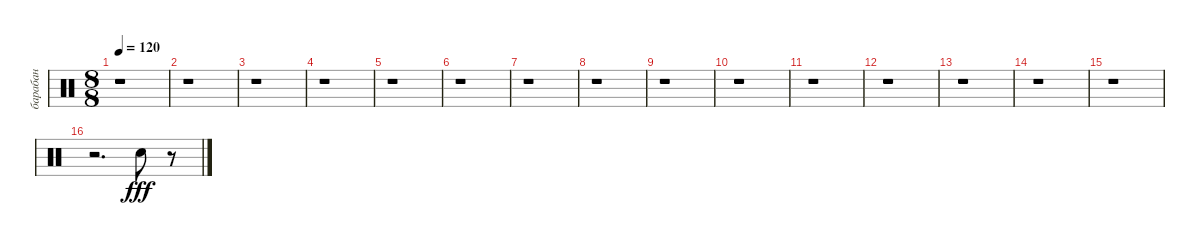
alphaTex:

\track ("барабан" "барабан") {instrument percussion}
\staff {score}
\articulation defaults
\ts (8 8)
\tempo 120
\clef neutral
\ks c
r.1{dy fff} |
r.1 |
r.1 |
r.1 |
r.1 |
r.1 |
r.1 |
r.1 |
r.1 |
r.1 |
r.1 |
r.1 |
r.1 |
r.1 |
r.1 |
r.2{d} "Electric Snare (hit)".8 r.8
